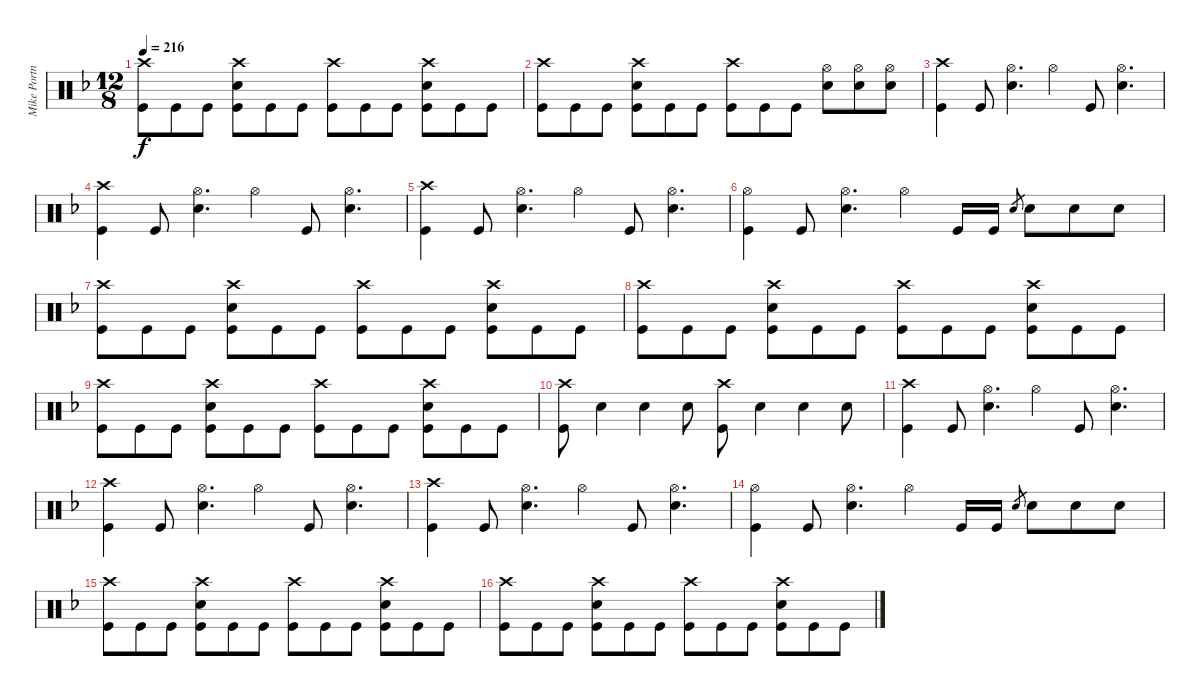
\track ("Mike Portnoy - Drums" "Mike Portn") {instrument percussion}
\staff {score}
\articulation defaults
\ts (12 8)
\tempo 216
\clef neutral
\ks dminor
("Crash high (hit)" "Kick (hit)").8{dy f} "Kick (hit)".8 "Kick (hit)".8 ("Crash high (hit)" "Snare (hit) 2" "Kick (hit)").8 "Kick (hit)".8 "Kick (hit)".8 ("Crash high (hit)" "Kick (hit)").8 "Kick (hit)".8 "Kick (hit)".8 ("Crash high (hit)" "Snare (hit) 2" "Kick (hit)").8 "Kick (hit)".8 "Kick (hit)".8 |
("Crash high (hit)" "Kick (hit)").8 "Kick (hit)".8 "Kick (hit)".8 ("Crash high (hit)" "Snare (hit) 2" "Kick (hit)").8 "Kick (hit)".8 "Kick (hit)".8 ("Crash high (hit)" "Kick (hit)").8 "Kick (hit)".8 "Kick (hit)".8 ("Hi-Hat (open)" "Snare (hit) 2").8 ("Hi-Hat (open)" "Snare (hit) 2").8 ("Hi-Hat (open)" "Snare (hit) 2").8 |
("Crash high (hit)" "Kick (hit)").4 "Kick (hit)".8 ("Hi-Hat (open)" "Snare (hit) 2").4{d} "Hi-Hat (open)".4 "Kick (hit)".8 ("Hi-Hat (open)" "Snare (hit) 2").4{d} |
("Crash high (hit)" "Kick (hit)").4 "Kick (hit)".8 ("Hi-Hat (open)" "Snare (hit) 2").4{d} "Hi-Hat (open)".4 "Kick (hit)".8 ("Hi-Hat (open)" "Snare (hit) 2").4{d} |
("Crash high (hit)" "Kick (hit)").4 "Kick (hit)".8 ("Hi-Hat (open)" "Snare (hit) 2").4{d} "Hi-Hat (open)".4 "Kick (hit)".8 ("Hi-Hat (open)" "Snare (hit) 2").4{d} |
("Hi-Hat (open)" "Kick (hit)").4 "Kick (hit)".8 ("Hi-Hat (open)" "Snare (hit) 2").4{d} "Hi-Hat (open)".4 "Kick (hit)".16 "Kick (hit)".16 "Snare (hit) 2".8{gr} "Snare (hit) 2".8 "Snare (hit) 2".8 "Snare (hit) 2".8 |
("Crash high (hit)" "Kick (hit)").8 "Kick (hit)".8 "Kick (hit)".8 ("Crash high (hit)" "Snare (hit) 2" "Kick (hit)").8 "Kick (hit)".8 "Kick (hit)".8 ("Crash high (hit)" "Kick (hit)").8 "Kick (hit)".8 "Kick (hit)".8 ("Crash high (hit)" "Snare (hit) 2" "Kick (hit)").8 "Kick (hit)".8 "Kick (hit)".8 |
("Crash high (hit)" "Kick (hit)").8 "Kick (hit)".8 "Kick (hit)".8 ("Crash high (hit)" "Snare (hit) 2" "Kick (hit)").8 "Kick (hit)".8 "Kick (hit)".8 ("Crash high (hit)" "Kick (hit)").8 "Kick (hit)".8 "Kick (hit)".8 ("Crash high (hit)" "Snare (hit) 2" "Kick (hit)").8 "Kick (hit)".8 "Kick (hit)".8 |
("Crash high (hit)" "Kick (hit)").8 "Kick (hit)".8 "Kick (hit)".8 ("Crash high (hit)" "Snare (hit) 2" "Kick (hit)").8 "Kick (hit)".8 "Kick (hit)".8 ("Crash high (hit)" "Kick (hit)").8 "Kick (hit)".8 "Kick (hit)".8 ("Crash high (hit)" "Snare (hit) 2" "Kick (hit)").8 "Kick (hit)".8 "Kick (hit)".8 |
("Crash high (hit)" "Kick (hit)").8 "Snare (hit) 2".4 "Snare (hit) 2".4 "Snare (hit) 2".8 ("Crash high (hit)" "Kick (hit)").8 "Snare (hit) 2".4 "Snare (hit) 2".4 "Snare (hit) 2".8 |
("Crash high (hit)" "Kick (hit)").4 "Kick (hit)".8 ("Hi-Hat (open)" "Snare (hit) 2").4{d} "Hi-Hat (open)".4 "Kick (hit)".8 ("Hi-Hat (open)" "Snare (hit) 2").4{d} |
("Crash high (hit)" "Kick (hit)").4 "Kick (hit)".8 ("Hi-Hat (open)" "Snare (hit) 2").4{d} "Hi-Hat (open)".4 "Kick (hit)".8 ("Hi-Hat (open)" "Snare (hit) 2").4{d} |
("Crash high (hit)" "Kick (hit)").4 "Kick (hit)".8 ("Hi-Hat (open)" "Snare (hit) 2").4{d} "Hi-Hat (open)".4 "Kick (hit)".8 ("Hi-Hat (open)" "Snare (hit) 2").4{d} |
("Hi-Hat (open)" "Kick (hit)").4 "Kick (hit)".8 ("Hi-Hat (open)" "Snare (hit) 2").4{d} "Hi-Hat (open)".4 "Kick (hit)".16 "Kick (hit)".16 "Snare (hit) 2".8{gr} "Snare (hit) 2".8 "Snare (hit) 2".8 "Snare (hit) 2".8 |
("Crash high (hit)" "Kick (hit)").8 "Kick (hit)".8 "Kick (hit)".8 ("Crash high (hit)" "Snare (hit) 2" "Kick (hit)").8 "Kick (hit)".8 "Kick (hit)".8 ("Crash high (hit)" "Kick (hit)").8 "Kick (hit)".8 "Kick (hit)".8 ("Crash high (hit)" "Snare (hit) 2" "Kick (hit)").8 "Kick (hit)".8 "Kick (hit)".8 |
("Crash high (hit)" "Kick (hit)").8 "Kick (hit)".8 "Kick (hit)".8 ("Crash high (hit)" "Snare (hit) 2" "Kick (hit)").8 "Kick (hit)".8 "Kick (hit)".8 ("Crash high (hit)" "Kick (hit)").8 "Kick (hit)".8 "Kick (hit)".8 ("Crash high (hit)" "Snare (hit) 2" "Kick (hit)").8 "Kick (hit)".8 "Kick (hit)".8
